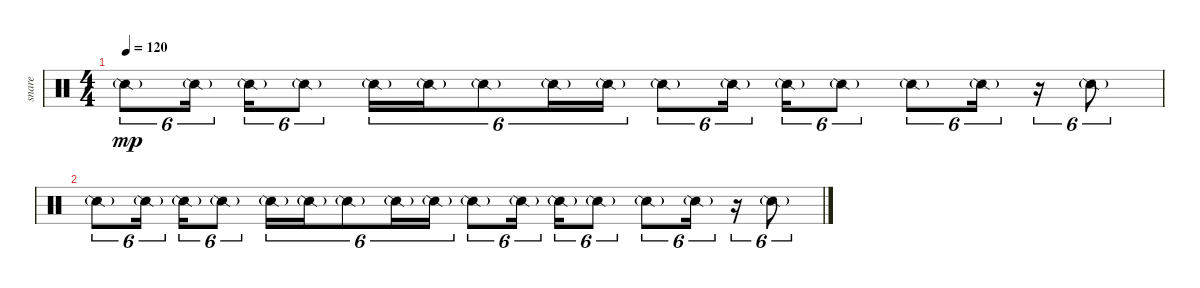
\track ("snare" "snare") {instrument percussion}
\staff {score}
\articulation defaults
\ts (4 4)
\tempo 120
\clef neutral
\ks c "Snare (side stick) 2"{g}.8{tu (6 4) dy mp} "Snare (side stick) 2"{g}.16{tu (6 4) beam splitsecondary} "Snare (side stick) 2"{g}.16{tu (6 4)} "Snare (side stick) 2"{g}.8{tu (6 4)} "Snare (side stick) 2"{g}.16{tu (6 4)} "Snare (side stick) 2"{g}.16{tu (6 4)} "Snare (side stick) 2"{g}.8{tu (6 4)} "Snare (side stick) 2"{g}.16{tu (6 4)} "Snare (side stick) 2"{g}.16{tu (6 4)} "Snare (side stick) 2"{g}.8{tu (6 4)} "Snare (side stick) 2"{g}.16{tu (6 4) beam splitsecondary} "Snare (side stick) 2"{g}.16{tu (6 4)} "Snare (side stick) 2"{g}.8{tu (6 4)} "Snare (side stick) 2"{g}.8{tu (6 4)} "Snare (side stick) 2"{g}.16{tu (6 4)}
r.16{tu (6 4)} "Snare (side stick) 2"{g}.8{tu (6 4)} |
"Snare (side stick) 2"{g}.8{tu (6 4)} "Snare (side stick) 2"{g}.16{tu (6 4) beam splitsecondary} "Snare (side stick) 2"{g}.16{tu (6 4)} "Snare (side stick) 2"{g}.8{tu (6 4)} "Snare (side stick) 2"{g}.16{tu (6 4)} "Snare (side stick) 2"{g}.16{tu (6 4)} "Snare (side stick) 2"{g}.8{tu (6 4)} "Snare (side stick) 2"{g}.16{tu (6 4)} "Snare (side stick) 2"{g}.16{tu (6 4)} "Snare (side stick) 2"{g}.8{tu (6 4)} "Snare (side stick) 2"{g}.16{tu (6 4) beam splitsecondary} "Snare (side stick) 2"{g}.16{tu (6 4)} "Snare (side stick) 2"{g}.8{tu (6 4)} "Snare (side stick) 2"{g}.8{tu (6 4)} "Snare (side stick) 2"{g}.16{tu (6 4)} r.16{tu (6 4)} "Snare (side stick) 2"{g}.8{tu (6 4)}
